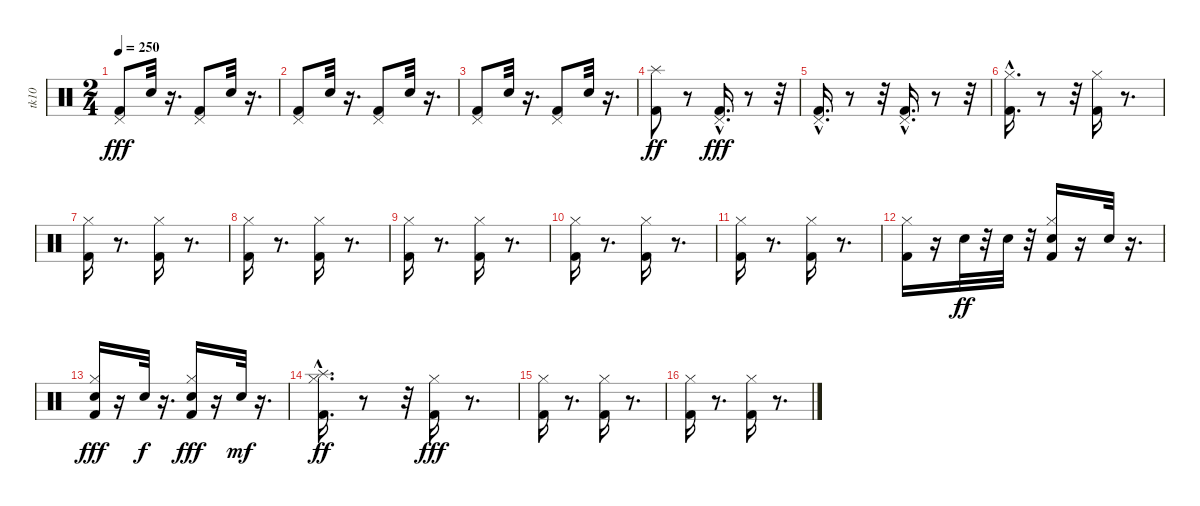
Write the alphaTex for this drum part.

\track ("tk10" "tk10") {instrument percussion}
\staff {score}
\articulation defaults
\ts (2 4)
\tempo 250
\clef neutral
\ks c
("Kick (hit) 2" "Pedal Hi-Hat (hit)").8{dy fff} "Snare (hit) 2".32 r.16{d} ("Kick (hit) 2" "Pedal Hi-Hat (hit)").8 "Snare (hit) 2".32 r.16{d} |
("Kick (hit) 2" "Pedal Hi-Hat (hit)").8 "Snare (hit) 2".32 r.16{d} ("Kick (hit) 2" "Pedal Hi-Hat (hit)").8 "Snare (hit) 2".32 r.16{d} |
("Kick (hit) 2" "Pedal Hi-Hat (hit)").8 "Snare (hit) 2".32 r.16{d} ("Kick (hit) 2" "Pedal Hi-Hat (hit)").8 "Snare (hit) 2".32 r.16{d} |
("Kick (hit) 2" "Splash (hit)").8{dy ff} r.8 ("Kick (hit) 2"{hac} "Pedal Hi-Hat (hit)").16{d dy fff} r.8 r.32 |
("Kick (hit) 2"{hac} "Pedal Hi-Hat (hit)").16{d} r.8 r.32 ("Kick (hit) 2"{hac} "Pedal Hi-Hat (hit)").16{d} r.8 r.32 |
("Hi-Hat (closed)" "Kick (hit) 2"{hac}).16{d} r.8 r.32 ("Kick (hit) 2" "Hi-Hat (closed)").16 r.8{d} |
("Hi-Hat (closed)" "Kick (hit) 2").16 r.8{d} ("Kick (hit) 2" "Hi-Hat (closed)").16 r.8{d} |
("Kick (hit) 2" "Hi-Hat (closed)").16 r.8{d} ("Hi-Hat (closed)" "Kick (hit) 2").16 r.8{d} |
("Kick (hit) 2" "Hi-Hat (closed)").16 r.8{d} ("Kick (hit) 2" "Hi-Hat (closed)").16 r.8{d} |
("Kick (hit) 2" "Hi-Hat (closed)").16 r.8{d} ("Hi-Hat (closed)" "Kick (hit) 2").16 r.8{d} |
("Hi-Hat (closed)" "Kick (hit) 2").16 r.8{d} ("Hi-Hat (closed)" "Kick (hit) 2").16 r.8{d} |
("Hi-Hat (closed)" "Kick (hit) 2").16 r.16 "Electric Snare (hit)".32{dy ff} r.32 "Electric Snare (hit)".32 r.32 ("Hi-Hat (closed)" "Kick (hit) 2" "Electric Snare (hit)").16 r.16 "Electric Snare (hit)".32 r.16{d} |
("Hi-Hat (closed)" "Kick (hit) 2" "Electric Snare (hit)").16{dy fff} r.16 "Electric Snare (hit)".32{dy f} r.16{d} ("Kick (hit) 2" "Hi-Hat (closed)" "Electric Snare (hit)").16{dy fff} r.16 "Electric Snare (hit)".32{dy mf} r.16{d} |
("Hi-Hat (closed)" "Kick (hit) 2"{hac} "Splash (hit)").16{d dy ff} r.8 r.32 ("Kick (hit) 2" "Hi-Hat (closed)").16{dy fff} r.8{d} |
("Hi-Hat (closed)" "Kick (hit) 2").16 r.8{d} ("Kick (hit) 2" "Hi-Hat (closed)").16 r.8{d} |
("Kick (hit) 2" "Hi-Hat (closed)").16 r.8{d} ("Hi-Hat (closed)" "Kick (hit) 2").16 r.8{d}
